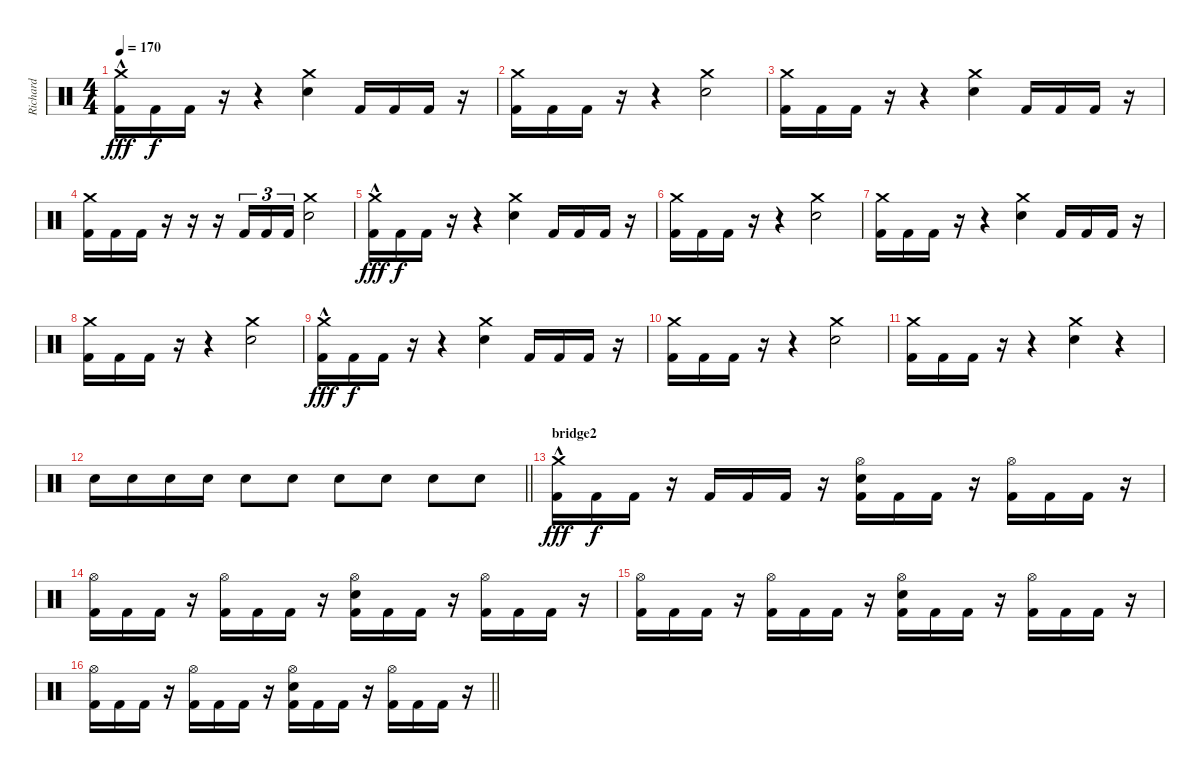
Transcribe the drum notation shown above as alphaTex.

\track ("Richard" "Richard") {instrument percussion}
\staff {score}
\articulation defaults
\ts (4 4)
\tempo 170
\clef neutral
\ks c
("Crash medium (hit)"{hac} "Kick (hit) 2").16{dy fff} "Kick (hit) 2".16{dy f} "Kick (hit) 2".16 r.16 r.4 ("Crash medium (hit)" "Electric Snare (hit)").4 "Kick (hit) 2".16 "Kick (hit) 2".16 "Kick (hit) 2".16 r.16 |
("Crash medium (hit)" "Kick (hit) 2").16 "Kick (hit) 2".16 "Kick (hit) 2".16 r.16 r.4 ("Crash medium (hit)" "Electric Snare (hit)").2 |
("Crash medium (hit)" "Kick (hit) 2").16 "Kick (hit) 2".16 "Kick (hit) 2".16 r.16 r.4 ("Crash medium (hit)" "Electric Snare (hit)").4 "Kick (hit) 2".16 "Kick (hit) 2".16 "Kick (hit) 2".16 r.16 |
("Crash medium (hit)" "Kick (hit) 2").16 "Kick (hit) 2".16 "Kick (hit) 2".16 r.16 r.16 r.16 "Kick (hit) 2".16{tu (3 2)} "Kick (hit) 2".16{tu (3 2)} "Kick (hit) 2".16{tu (3 2)} ("Crash medium (hit)" "Electric Snare (hit)").2 |
("Crash medium (hit)"{hac} "Kick (hit) 2").16{dy fff} "Kick (hit) 2".16{dy f} "Kick (hit) 2".16 r.16 r.4 ("Crash medium (hit)" "Electric Snare (hit)").4 "Kick (hit) 2".16 "Kick (hit) 2".16 "Kick (hit) 2".16 r.16 |
("Crash medium (hit)" "Kick (hit) 2").16 "Kick (hit) 2".16 "Kick (hit) 2".16 r.16 r.4 ("Crash medium (hit)" "Electric Snare (hit)").2 |
("Crash medium (hit)" "Kick (hit) 2").16 "Kick (hit) 2".16 "Kick (hit) 2".16 r.16 r.4 ("Crash medium (hit)" "Electric Snare (hit)").4 "Kick (hit) 2".16 "Kick (hit) 2".16 "Kick (hit) 2".16 r.16 |
("Crash medium (hit)" "Kick (hit) 2").16 "Kick (hit) 2".16 "Kick (hit) 2".16 r.16 r.4 ("Crash medium (hit)" "Electric Snare (hit)").2 |
("Crash medium (hit)"{hac} "Kick (hit) 2").16{dy fff} "Kick (hit) 2".16{dy f} "Kick (hit) 2".16 r.16 r.4 ("Crash medium (hit)" "Electric Snare (hit)").4 "Kick (hit) 2".16 "Kick (hit) 2".16 "Kick (hit) 2".16 r.16 |
("Crash medium (hit)" "Kick (hit) 2").16 "Kick (hit) 2".16 "Kick (hit) 2".16 r.16 r.4 ("Crash medium (hit)" "Electric Snare (hit)").2 |
("Crash medium (hit)" "Kick (hit) 2").16 "Kick (hit) 2".16 "Kick (hit) 2".16 r.16 r.4 ("Crash medium (hit)" "Electric Snare (hit)").4 r.4 |
\barLineRight lightlight "Electric Snare (hit)".16 "Electric Snare (hit)".16 "Electric Snare (hit)".16 "Electric Snare (hit)".16 "Electric Snare (hit)".8 "Electric Snare (hit)".8 "Electric Snare (hit)".8 "Electric Snare (hit)".8 "Electric Snare (hit)".8 "Electric Snare (hit)".8
|
\section ("" "bridge2")
("Crash medium (hit)"{hac} "Kick (hit) 2").16{dy fff} "Kick (hit) 2".16{dy f} "Kick (hit) 2".16 r.16 "Kick (hit) 2".16 "Kick (hit) 2".16 "Kick (hit) 2".16 r.16 ("Electric Snare (hit)" "Hi-Hat (open)" "Kick (hit) 2").16 "Kick (hit) 2".16 "Kick (hit) 2".16 r.16 ("Hi-Hat (open)" "Kick (hit) 2").16 "Kick (hit) 2".16 "Kick (hit) 2".16 r.16 |
("Hi-Hat (open)" "Kick (hit) 2").16 "Kick (hit) 2".16 "Kick (hit) 2".16 r.16 ("Hi-Hat (open)" "Kick (hit) 2").16 "Kick (hit) 2".16 "Kick (hit) 2".16 r.16 ("Electric Snare (hit)" "Hi-Hat (open)" "Kick (hit) 2").16 "Kick (hit) 2".16 "Kick (hit) 2".16 r.16 ("Hi-Hat (open)" "Kick (hit) 2").16 "Kick (hit) 2".16 "Kick (hit) 2".16 r.16 |
("Hi-Hat (open)" "Kick (hit) 2").16 "Kick (hit) 2".16 "Kick (hit) 2".16 r.16 ("Hi-Hat (open)" "Kick (hit) 2").16 "Kick (hit) 2".16 "Kick (hit) 2".16 r.16 ("Electric Snare (hit)" "Hi-Hat (open)" "Kick (hit) 2").16 "Kick (hit) 2".16 "Kick (hit) 2".16 r.16 ("Hi-Hat (open)" "Kick (hit) 2").16 "Kick (hit) 2".16 "Kick (hit) 2".16 r.16 |
\barLineRight lightlight
("Hi-Hat (open)" "Kick (hit) 2").16 "Kick (hit) 2".16 "Kick (hit) 2".16 r.16 ("Hi-Hat (open)" "Kick (hit) 2").16 "Kick (hit) 2".16 "Kick (hit) 2".16 r.16 ("Electric Snare (hit)" "Hi-Hat (open)" "Kick (hit) 2").16 "Kick (hit) 2".16 "Kick (hit) 2".16 r.16 ("Hi-Hat (open)" "Kick (hit) 2").16 "Kick (hit) 2".16 "Kick (hit) 2".16 r.16
